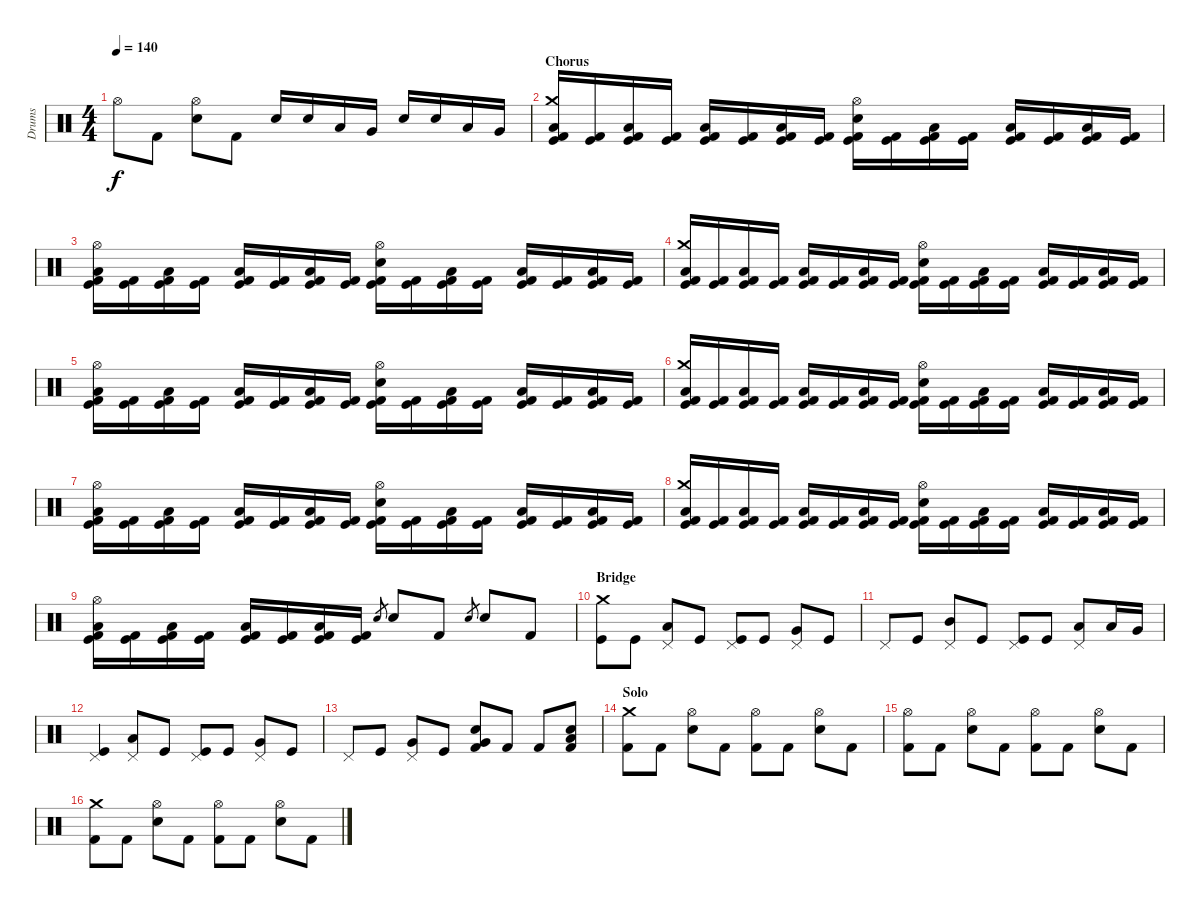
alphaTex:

\track ("Drums" "Drums") {instrument percussion}
\staff {score}
\articulation defaults
\ts (4 4)
\tempo 140
\clef neutral
\ks c "Hi-Hat (open)".8{dy f} "Kick (hit) 2".8
("Hi-Hat (open)" "Electric Snare (hit)").8 "Kick (hit) 2".8 "Electric Snare (hit)".16 "Electric Snare (hit)".16 "Low Tom (hit)".16 "Very Low Tom (hit)".16 "Electric Snare (hit)".16 "Electric Snare (hit)".16 "Low Tom (hit)".16 "Very Low Tom (hit)".16 |
\section ("" "Chorus")
("Crash medium (hit)" "Kick (hit) 2" "Kick (hit)" "Low Tom (hit)").16 ("Kick (hit) 2" "Kick (hit)").16 ("Kick (hit) 2" "Kick (hit)" "Low Tom (hit)").16 ("Kick (hit) 2" "Kick (hit)").16 ("Kick (hit) 2" "Kick (hit)" "Low Tom (hit)").16 ("Kick (hit) 2" "Kick (hit)").16 ("Kick (hit) 2" "Kick (hit)" "Low Tom (hit)").16 ("Kick (hit) 2" "Kick (hit)").16 ("Hi-Hat (open)" "Kick (hit) 2" "Kick (hit)" "Electric Snare (hit)").16 ("Kick (hit) 2" "Kick (hit)").16 ("Kick (hit) 2" "Kick (hit)" "Low Tom (hit)").16 ("Kick (hit) 2" "Kick (hit)").16 ("Kick (hit) 2" "Kick (hit)" "Low Tom (hit)").16 ("Kick (hit) 2" "Kick (hit)").16 ("Kick (hit) 2" "Kick (hit)" "Low Tom (hit)").16 ("Kick (hit) 2" "Kick (hit)").16 |
("Hi-Hat (open)" "Kick (hit) 2" "Kick (hit)" "Low Tom (hit)").16 ("Kick (hit) 2" "Kick (hit)").16 ("Kick (hit) 2" "Kick (hit)" "Low Tom (hit)").16 ("Kick (hit) 2" "Kick (hit)").16 ("Kick (hit) 2" "Kick (hit)" "Low Tom (hit)").16 ("Kick (hit) 2" "Kick (hit)").16 ("Kick (hit) 2" "Kick (hit)" "Low Tom (hit)").16 ("Kick (hit) 2" "Kick (hit)").16 ("Hi-Hat (open)" "Kick (hit) 2" "Kick (hit)" "Electric Snare (hit)").16 ("Kick (hit) 2" "Kick (hit)").16 ("Kick (hit) 2" "Kick (hit)" "Low Tom (hit)").16 ("Kick (hit) 2" "Kick (hit)").16 ("Kick (hit) 2" "Kick (hit)" "Low Tom (hit)").16 ("Kick (hit) 2" "Kick (hit)").16 ("Kick (hit) 2" "Kick (hit)" "Low Tom (hit)").16 ("Kick (hit) 2" "Kick (hit)").16 |
("Crash medium (hit)" "Kick (hit) 2" "Kick (hit)" "Low Tom (hit)").16 ("Kick (hit) 2" "Kick (hit)").16 ("Kick (hit) 2" "Kick (hit)" "Low Tom (hit)").16 ("Kick (hit) 2" "Kick (hit)").16 ("Kick (hit) 2" "Kick (hit)" "Low Tom (hit)").16 ("Kick (hit) 2" "Kick (hit)").16 ("Kick (hit) 2" "Kick (hit)" "Low Tom (hit)").16 ("Kick (hit) 2" "Kick (hit)").16 ("Hi-Hat (open)" "Kick (hit) 2" "Kick (hit)" "Electric Snare (hit)").16 ("Kick (hit) 2" "Kick (hit)").16 ("Kick (hit) 2" "Kick (hit)" "Low Tom (hit)").16 ("Kick (hit) 2" "Kick (hit)").16 ("Kick (hit) 2" "Kick (hit)" "Low Tom (hit)").16 ("Kick (hit) 2" "Kick (hit)").16 ("Kick (hit) 2" "Kick (hit)" "Low Tom (hit)").16 ("Kick (hit) 2" "Kick (hit)").16 |
("Hi-Hat (open)" "Kick (hit) 2" "Kick (hit)" "Low Tom (hit)").16 ("Kick (hit) 2" "Kick (hit)").16 ("Kick (hit) 2" "Kick (hit)" "Low Tom (hit)").16 ("Kick (hit) 2" "Kick (hit)").16 ("Kick (hit) 2" "Kick (hit)" "Low Tom (hit)").16 ("Kick (hit) 2" "Kick (hit)").16 ("Kick (hit) 2" "Kick (hit)" "Low Tom (hit)").16 ("Kick (hit) 2" "Kick (hit)").16 ("Hi-Hat (open)" "Kick (hit) 2" "Kick (hit)" "Electric Snare (hit)").16 ("Kick (hit) 2" "Kick (hit)").16 ("Kick (hit) 2" "Kick (hit)" "Low Tom (hit)").16 ("Kick (hit) 2" "Kick (hit)").16 ("Kick (hit) 2" "Kick (hit)" "Low Tom (hit)").16 ("Kick (hit) 2" "Kick (hit)").16 ("Kick (hit) 2" "Kick (hit)" "Low Tom (hit)").16 ("Kick (hit) 2" "Kick (hit)").16 |
("Crash medium (hit)" "Kick (hit) 2" "Kick (hit)" "Low Tom (hit)").16 ("Kick (hit) 2" "Kick (hit)").16 ("Kick (hit) 2" "Kick (hit)" "Low Tom (hit)").16 ("Kick (hit) 2" "Kick (hit)").16 ("Kick (hit) 2" "Kick (hit)" "Low Tom (hit)").16 ("Kick (hit) 2" "Kick (hit)").16 ("Kick (hit) 2" "Kick (hit)" "Low Tom (hit)").16 ("Kick (hit) 2" "Kick (hit)").16 ("Hi-Hat (open)" "Kick (hit) 2" "Kick (hit)" "Electric Snare (hit)").16 ("Kick (hit) 2" "Kick (hit)").16 ("Kick (hit) 2" "Kick (hit)" "Low Tom (hit)").16 ("Kick (hit) 2" "Kick (hit)").16 ("Kick (hit) 2" "Kick (hit)" "Low Tom (hit)").16 ("Kick (hit) 2" "Kick (hit)").16 ("Kick (hit) 2" "Kick (hit)" "Low Tom (hit)").16 ("Kick (hit) 2" "Kick (hit)").16 |
("Hi-Hat (open)" "Kick (hit) 2" "Kick (hit)" "Low Tom (hit)").16 ("Kick (hit) 2" "Kick (hit)").16 ("Kick (hit) 2" "Kick (hit)" "Low Tom (hit)").16 ("Kick (hit) 2" "Kick (hit)").16 ("Kick (hit) 2" "Kick (hit)" "Low Tom (hit)").16 ("Kick (hit) 2" "Kick (hit)").16 ("Kick (hit) 2" "Kick (hit)" "Low Tom (hit)").16 ("Kick (hit) 2" "Kick (hit)").16 ("Hi-Hat (open)" "Kick (hit) 2" "Kick (hit)" "Electric Snare (hit)").16 ("Kick (hit) 2" "Kick (hit)").16 ("Kick (hit) 2" "Kick (hit)" "Low Tom (hit)").16 ("Kick (hit) 2" "Kick (hit)").16 ("Kick (hit) 2" "Kick (hit)" "Low Tom (hit)").16 ("Kick (hit) 2" "Kick (hit)").16 ("Kick (hit) 2" "Kick (hit)" "Low Tom (hit)").16 ("Kick (hit) 2" "Kick (hit)").16 |
("Crash medium (hit)" "Kick (hit) 2" "Kick (hit)" "Low Tom (hit)").16 ("Kick (hit) 2" "Kick (hit)").16 ("Kick (hit) 2" "Kick (hit)" "Low Tom (hit)").16 ("Kick (hit) 2" "Kick (hit)").16 ("Kick (hit) 2" "Kick (hit)" "Low Tom (hit)").16 ("Kick (hit) 2" "Kick (hit)").16 ("Kick (hit) 2" "Kick (hit)" "Low Tom (hit)").16 ("Kick (hit) 2" "Kick (hit)").16 ("Hi-Hat (open)" "Kick (hit) 2" "Kick (hit)" "Electric Snare (hit)").16 ("Kick (hit) 2" "Kick (hit)").16 ("Kick (hit) 2" "Kick (hit)" "Low Tom (hit)").16 ("Kick (hit) 2" "Kick (hit)").16 ("Kick (hit) 2" "Kick (hit)" "Low Tom (hit)").16 ("Kick (hit) 2" "Kick (hit)").16 ("Kick (hit) 2" "Kick (hit)" "Low Tom (hit)").16 ("Kick (hit) 2" "Kick (hit)").16 |
("Hi-Hat (open)" "Kick (hit) 2" "Kick (hit)" "Low Tom (hit)").16 ("Kick (hit) 2" "Kick (hit)").16 ("Kick (hit) 2" "Kick (hit)" "Low Tom (hit)").16 ("Kick (hit) 2" "Kick (hit)").16 ("Kick (hit) 2" "Kick (hit)" "Low Tom (hit)").16 ("Kick (hit) 2" "Kick (hit)").16 ("Kick (hit) 2" "Kick (hit)" "Low Tom (hit)").16 ("Kick (hit) 2" "Kick (hit)").16 "Electric Snare (hit)".8{gr} "Electric Snare (hit)".8 "Kick (hit) 2".8 "Electric Snare (hit)".8{gr} "Electric Snare (hit)".8 "Kick (hit) 2".8 |
\section ("" "Bridge")
("Crash medium (hit)" "Kick (hit)").8 "Kick (hit)".8 ("Pedal Hi-Hat (hit)" "Low Tom (hit)").8 "Kick (hit)".8 ("Pedal Hi-Hat (hit)" "Kick (hit)").8 "Kick (hit)".8 ("Pedal Hi-Hat (hit)" "Very Low Tom (hit)").8 "Kick (hit)".8 |
"Pedal Hi-Hat (hit)".8 "Kick (hit)".8 ("Pedal Hi-Hat (hit)" "Mid Tom (hit)").8 "Kick (hit)".8 ("Pedal Hi-Hat (hit)" "Kick (hit)").8 "Kick (hit)".8 ("Pedal Hi-Hat (hit)" "Low Tom (hit)").8 "Low Tom (hit)".16 "Very Low Tom (hit)".16 |
("Pedal Hi-Hat (hit)" "Kick (hit)").4 ("Pedal Hi-Hat (hit)" "Low Tom (hit)").8 "Kick (hit)".8 ("Pedal Hi-Hat (hit)" "Kick (hit)").8 "Kick (hit)".8 ("Pedal Hi-Hat (hit)" "Very Low Tom (hit)").8 "Kick (hit)".8 |
"Pedal Hi-Hat (hit)".8 "Kick (hit)".8 ("Pedal Hi-Hat (hit)" "Very Low Tom (hit)").8 "Kick (hit)".8 ("Very Low Tom (hit)" "Electric Snare (hit)" "Kick (hit) 2").8 "Kick (hit) 2".8 "Kick (hit) 2".8 ("Low Tom (hit)" "Electric Snare (hit)" "Kick (hit) 2").8 |
\section ("" "Solo")
("Crash medium (hit)" "Kick (hit) 2").8 "Kick (hit) 2".8 ("Hi-Hat (open)" "Electric Snare (hit)").8 "Kick (hit) 2".8 ("Hi-Hat (open)" "Kick (hit) 2").8 "Kick (hit) 2".8 ("Hi-Hat (open)" "Electric Snare (hit)").8 "Kick (hit) 2".8 |
("Hi-Hat (open)" "Kick (hit) 2").8 "Kick (hit) 2".8 ("Hi-Hat (open)" "Electric Snare (hit)").8 "Kick (hit) 2".8 ("Hi-Hat (open)" "Kick (hit) 2").8 "Kick (hit) 2".8 ("Hi-Hat (open)" "Electric Snare (hit)").8 "Kick (hit) 2".8 |
("Crash medium (hit)" "Kick (hit) 2").8 "Kick (hit) 2".8 ("Hi-Hat (open)" "Electric Snare (hit)").8 "Kick (hit) 2".8 ("Hi-Hat (open)" "Kick (hit) 2").8 "Kick (hit) 2".8 ("Hi-Hat (open)" "Electric Snare (hit)").8 "Kick (hit) 2".8
